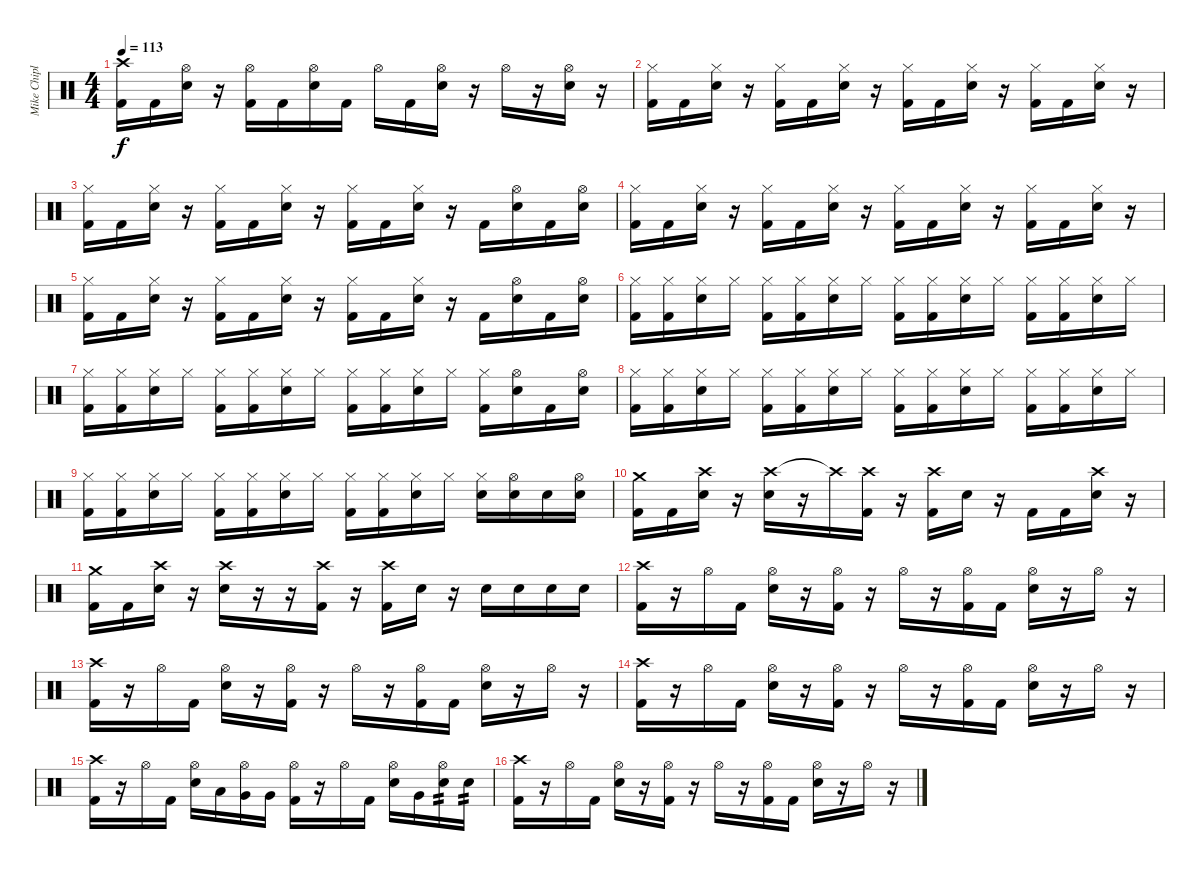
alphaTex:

\track ("Mike Chiplin" "Mike Chipl") {instrument percussion}
\staff {score}
\articulation defaults
\ts (4 4)
\tempo 113
\clef neutral
\ks c
("Crash high (hit)" "Kick (hit) 2").16{dy f} "Kick (hit) 2".16 ("Hi-Hat (open)" "Snare (hit) 2").16 r.16 ("Hi-Hat (open)" "Kick (hit) 2").16 "Kick (hit) 2".16 ("Hi-Hat (open)" "Snare (hit) 2").16 "Kick (hit) 2".16 "Hi-Hat (open)".16 "Kick (hit) 2".16 ("Hi-Hat (open)" "Snare (hit) 2").16 r.16 "Hi-Hat (open)".16 r.16 ("Hi-Hat (open)" "Snare (hit) 2").16 r.16 |
("Hi-Hat (closed)" "Kick (hit) 2").16 "Kick (hit) 2".16 ("Hi-Hat (closed)" "Snare (hit) 2").16 r.16 ("Hi-Hat (closed)" "Kick (hit) 2").16 "Kick (hit) 2".16 ("Hi-Hat (closed)" "Snare (hit) 2").16 r.16 ("Hi-Hat (closed)" "Kick (hit) 2").16 "Kick (hit) 2".16 ("Hi-Hat (closed)" "Snare (hit) 2").16 r.16 ("Hi-Hat (closed)" "Kick (hit) 2").16 "Kick (hit) 2".16 ("Hi-Hat (closed)" "Snare (hit) 2").16 r.16 |
("Hi-Hat (closed)" "Kick (hit) 2").16 "Kick (hit) 2".16 ("Hi-Hat (closed)" "Snare (hit) 2").16 r.16 ("Hi-Hat (closed)" "Kick (hit) 2").16 "Kick (hit) 2".16 ("Hi-Hat (closed)" "Snare (hit) 2").16 r.16 ("Hi-Hat (closed)" "Kick (hit) 2").16 "Kick (hit) 2".16 ("Hi-Hat (closed)" "Snare (hit) 2").16 r.16 "Kick (hit) 2".16 ("Hi-Hat (open)" "Snare (hit) 2").16 "Kick (hit) 2".16 ("Hi-Hat (open)" "Snare (hit) 2").16 |
("Hi-Hat (closed)" "Kick (hit) 2").16 "Kick (hit) 2".16 ("Hi-Hat (closed)" "Snare (hit) 2").16 r.16 ("Hi-Hat (closed)" "Kick (hit) 2").16 "Kick (hit) 2".16 ("Hi-Hat (closed)" "Snare (hit) 2").16 r.16 ("Hi-Hat (closed)" "Kick (hit) 2").16 "Kick (hit) 2".16 ("Hi-Hat (closed)" "Snare (hit) 2").16 r.16 ("Hi-Hat (closed)" "Kick (hit) 2").16 "Kick (hit) 2".16 ("Hi-Hat (closed)" "Snare (hit) 2").16 r.16 |
("Hi-Hat (closed)" "Kick (hit) 2").16 "Kick (hit) 2".16 ("Hi-Hat (closed)" "Snare (hit) 2").16 r.16 ("Hi-Hat (closed)" "Kick (hit) 2").16 "Kick (hit) 2".16 ("Hi-Hat (closed)" "Snare (hit) 2").16 r.16 ("Hi-Hat (closed)" "Kick (hit) 2").16 "Kick (hit) 2".16 ("Hi-Hat (closed)" "Snare (hit) 2").16 r.16 "Kick (hit) 2".16 ("Hi-Hat (open)" "Snare (hit) 2").16 "Kick (hit) 2".16 ("Hi-Hat (open)" "Snare (hit) 2").16 |
("Hi-Hat (closed)" "Kick (hit) 2").16 ("Hi-Hat (closed)" "Kick (hit) 2").16 ("Hi-Hat (closed)" "Snare (hit) 2").16 "Hi-Hat (closed)".16 ("Hi-Hat (closed)" "Kick (hit) 2").16 ("Hi-Hat (closed)" "Kick (hit) 2").16 ("Hi-Hat (closed)" "Snare (hit) 2").16 "Hi-Hat (closed)".16 ("Hi-Hat (closed)" "Kick (hit) 2").16 ("Hi-Hat (closed)" "Kick (hit) 2").16 ("Hi-Hat (closed)" "Snare (hit) 2").16 "Hi-Hat (closed)".16 ("Hi-Hat (closed)" "Kick (hit) 2").16 ("Hi-Hat (closed)" "Kick (hit) 2").16 ("Hi-Hat (closed)" "Snare (hit) 2").16 "Hi-Hat (closed)".16 |
("Hi-Hat (closed)" "Kick (hit) 2").16 ("Hi-Hat (closed)" "Kick (hit) 2").16 ("Hi-Hat (closed)" "Snare (hit) 2").16 "Hi-Hat (closed)".16 ("Hi-Hat (closed)" "Kick (hit) 2").16 ("Hi-Hat (closed)" "Kick (hit) 2").16 ("Hi-Hat (closed)" "Snare (hit) 2").16 "Hi-Hat (closed)".16 ("Hi-Hat (closed)" "Kick (hit) 2").16 ("Hi-Hat (closed)" "Kick (hit) 2").16 ("Hi-Hat (closed)" "Snare (hit) 2").16 "Hi-Hat (closed)".16 ("Hi-Hat (closed)" "Kick (hit) 2").16 ("Hi-Hat (open)" "Snare (hit) 2").16 "Kick (hit) 2".16 ("Hi-Hat (open)" "Snare (hit) 2").16 |
("Hi-Hat (closed)" "Kick (hit) 2").16 ("Hi-Hat (closed)" "Kick (hit) 2").16 ("Hi-Hat (closed)" "Snare (hit) 2").16 "Hi-Hat (closed)".16 ("Hi-Hat (closed)" "Kick (hit) 2").16 ("Hi-Hat (closed)" "Kick (hit) 2").16 ("Hi-Hat (closed)" "Snare (hit) 2").16 "Hi-Hat (closed)".16 ("Hi-Hat (closed)" "Kick (hit) 2").16 ("Hi-Hat (closed)" "Kick (hit) 2").16 ("Hi-Hat (closed)" "Snare (hit) 2").16 "Hi-Hat (closed)".16 ("Hi-Hat (closed)" "Kick (hit) 2").16 ("Hi-Hat (closed)" "Kick (hit) 2").16 ("Hi-Hat (closed)" "Snare (hit) 2").16 "Hi-Hat (closed)".16 |
("Hi-Hat (closed)" "Kick (hit) 2").16 ("Hi-Hat (closed)" "Kick (hit) 2").16 ("Hi-Hat (closed)" "Snare (hit) 2").16 "Hi-Hat (closed)".16 ("Hi-Hat (closed)" "Kick (hit) 2").16 ("Hi-Hat (closed)" "Kick (hit) 2").16 ("Hi-Hat (closed)" "Snare (hit) 2").16 "Hi-Hat (closed)".16 ("Hi-Hat (closed)" "Kick (hit) 2").16 ("Hi-Hat (closed)" "Kick (hit) 2").16 ("Hi-Hat (closed)" "Snare (hit) 2").16 "Hi-Hat (closed)".16 ("Hi-Hat (closed)" "Snare (hit) 2").16 ("Hi-Hat (open)" "Snare (hit) 2").16 "Snare (hit) 2".16 ("Hi-Hat (open)" "Snare (hit) 2").16 |
("Crash medium (hit)" "Kick (hit) 2").16 "Kick (hit) 2".16 ("Crash high (hit)" "Snare (hit) 2").16 r.16 ("Crash high (hit)" "Snare (hit) 2").16 r.16 "Crash high (hit)"{t}.16 ("Crash high (hit)" "Kick (hit) 2").16 r.16 ("Crash high (hit)" "Kick (hit) 2").16 "Snare (hit) 2".16 r.16 "Kick (hit) 2".16 "Kick (hit) 2".16 ("Crash high (hit)" "Snare (hit) 2").16 r.16 |
("Crash medium (hit)" "Kick (hit) 2").16 "Kick (hit) 2".16 ("Crash high (hit)" "Snare (hit) 2").16 r.16 ("Crash high (hit)" "Snare (hit) 2").16 r.16 r.16 ("Crash high (hit)" "Kick (hit) 2").16 r.16 ("Crash high (hit)" "Kick (hit) 2").16 "Snare (hit) 2".16 r.16 "Snare (hit) 2".16 "Snare (hit) 2".16 "Snare (hit) 2".16 "Snare (hit) 2".16 |
("Crash high (hit)" "Kick (hit) 2").16 r.16 "Hi-Hat (open)".16 "Kick (hit) 2".16 ("Hi-Hat (open)" "Snare (hit) 2").16 r.16 ("Hi-Hat (open)" "Kick (hit) 2").16 r.16 "Hi-Hat (open)".16 r.16 ("Hi-Hat (open)" "Kick (hit) 2").16 "Kick (hit) 2".16 ("Hi-Hat (open)" "Snare (hit) 2").16 r.16 "Hi-Hat (open)".16 r.16 |
("Crash high (hit)" "Kick (hit) 2").16 r.16 "Hi-Hat (open)".16 "Kick (hit) 2".16 ("Hi-Hat (open)" "Snare (hit) 2").16 r.16 ("Hi-Hat (open)" "Kick (hit) 2").16 r.16 "Hi-Hat (open)".16 r.16 ("Hi-Hat (open)" "Kick (hit) 2").16 "Kick (hit) 2".16 ("Hi-Hat (open)" "Snare (hit) 2").16 r.16 "Hi-Hat (open)".16 r.16 |
("Crash high (hit)" "Kick (hit) 2").16 r.16 "Hi-Hat (open)".16 "Kick (hit) 2".16 ("Hi-Hat (open)" "Snare (hit) 2").16 r.16 ("Hi-Hat (open)" "Kick (hit) 2").16 r.16 "Hi-Hat (open)".16 r.16 ("Hi-Hat (open)" "Kick (hit) 2").16 "Kick (hit) 2".16 ("Hi-Hat (open)" "Snare (hit) 2").16 r.16 "Hi-Hat (open)".16 r.16 |
("Crash high (hit)" "Kick (hit) 2").16 r.16 "Hi-Hat (open)".16 "Kick (hit) 2".16 ("Hi-Hat (open)" "Snare (hit) 2").16 "Low Tom (hit)".16 ("Hi-Hat (open)" "Very Low Tom (hit)").16 "Very Low Tom (hit)".16 ("Hi-Hat (open)" "Kick (hit) 2").16 r.16 "Hi-Hat (open)".16 "Kick (hit) 2".16 ("Hi-Hat (open)" "Snare (hit) 2").16 "Very Low Tom (hit)".16 ("Hi-Hat (open)" "Snare (hit) 2").16{tp 2} "Snare (hit) 2".16{tp 2} |
("Crash high (hit)" "Kick (hit) 2").16 r.16 "Hi-Hat (open)".16 "Kick (hit) 2".16 ("Hi-Hat (open)" "Snare (hit) 2").16 r.16 ("Hi-Hat (open)" "Kick (hit) 2").16 r.16 "Hi-Hat (open)".16 r.16 ("Hi-Hat (open)" "Kick (hit) 2").16 "Kick (hit) 2".16 ("Hi-Hat (open)" "Snare (hit) 2").16 r.16 "Hi-Hat (open)".16 r.16
